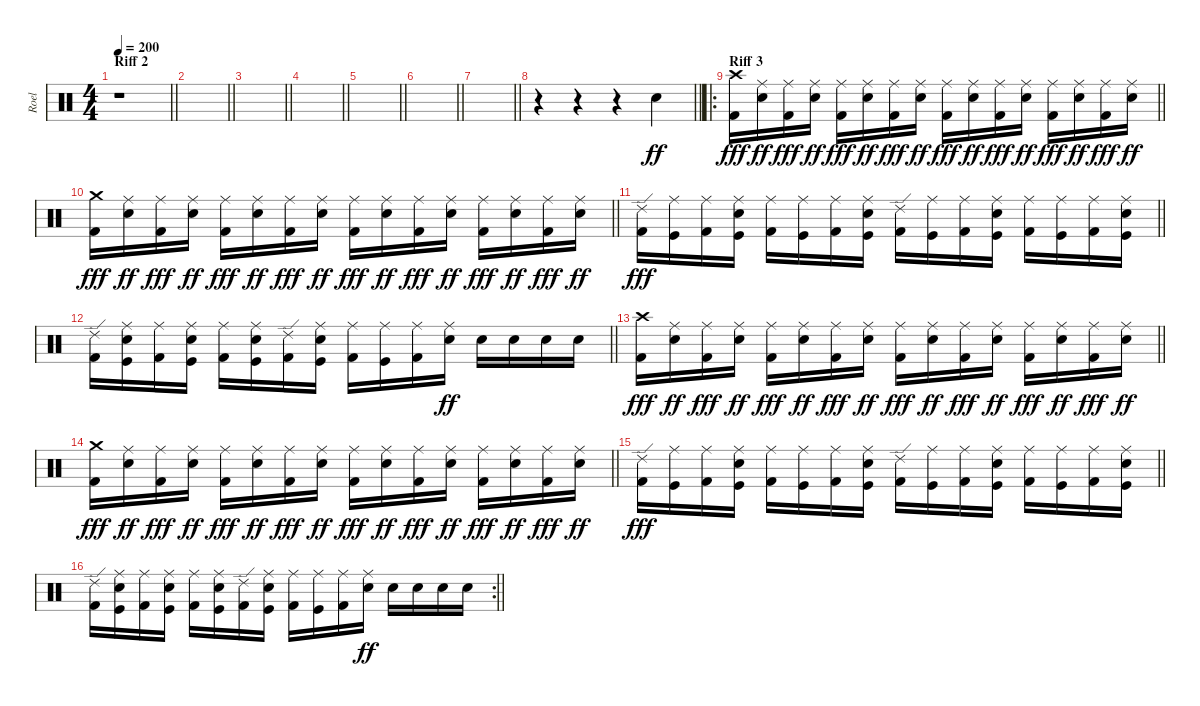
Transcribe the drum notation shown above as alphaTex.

\track ("Roel" "Roel") {instrument percussion}
\staff {score}
\articulation defaults
\ts (4 4)
\section ("" "Riff 2")
\tempo 200
\clef neutral
\barLineRight lightlight
\ks c
r.1{dy ff} |
\barLineRight lightlight
|
\barLineRight lightlight
|
\barLineRight lightlight
|
\barLineRight lightlight
|
\barLineRight lightlight
|
\barLineRight lightlight
|
\barLineRight lightlight
r.4 r.4 r.4 "Snare (hit) 2".4 |
\ro
\section ("" "Riff 3")
\barLineRight lightlight
("Crash high (hit)" "Kick (hit) 2").16{dy fff} ("Ride (middle)" "Snare (hit) 2").16{dy ff} ("Ride (middle)" "Kick (hit) 2").16{dy fff} ("Ride (middle)" "Snare (hit) 2").16{dy ff} ("Ride (middle)" "Kick (hit) 2").16{dy fff} ("Ride (middle)" "Snare (hit) 2").16{dy ff} ("Ride (middle)" "Kick (hit) 2").16{dy fff} ("Ride (middle)" "Snare (hit) 2").16{dy ff} ("Ride (middle)" "Kick (hit) 2").16{dy fff} ("Ride (middle)" "Snare (hit) 2").16{dy ff} ("Ride (middle)" "Kick (hit) 2").16{dy fff} ("Ride (middle)" "Snare (hit) 2").16{dy ff} ("Ride (middle)" "Kick (hit) 2").16{dy fff} ("Ride (middle)" "Snare (hit) 2").16{dy ff} ("Ride (middle)" "Kick (hit) 2").16{dy fff} ("Ride (middle)" "Snare (hit) 2").16{dy ff} |
\barLineRight lightlight
("Crash medium (hit)" "Kick (hit) 2").16{dy fff} ("Ride (middle)" "Snare (hit) 2").16{dy ff} ("Ride (middle)" "Kick (hit) 2").16{dy fff} ("Ride (middle)" "Snare (hit) 2").16{dy ff} ("Ride (middle)" "Kick (hit) 2").16{dy fff} ("Ride (middle)" "Snare (hit) 2").16{dy ff} ("Ride (middle)" "Kick (hit) 2").16{dy fff} ("Ride (middle)" "Snare (hit) 2").16{dy ff} ("Ride (middle)" "Kick (hit) 2").16{dy fff} ("Ride (middle)" "Snare (hit) 2").16{dy ff} ("Ride (middle)" "Kick (hit) 2").16{dy fff} ("Ride (middle)" "Snare (hit) 2").16{dy ff} ("Ride (middle)" "Kick (hit) 2").16{dy fff} ("Ride (middle)" "Snare (hit) 2").16{dy ff} ("Ride (middle)" "Kick (hit) 2").16{dy fff} ("Ride (middle)" "Snare (hit) 2").16{dy ff} |
\barLineRight lightlight
("Ride (edge) 2" "Kick (hit) 2").16{dy fff} ("Ride (middle)" "Kick (hit)").16 ("Ride (middle)" "Kick (hit) 2").16 ("Ride (middle)" "Snare (hit) 2" "Kick (hit)").16 ("Ride (middle)" "Kick (hit) 2").16 ("Ride (middle)" "Kick (hit)").16 ("Ride (middle)" "Kick (hit) 2").16 ("Ride (middle)" "Snare (hit) 2" "Kick (hit)").16 ("Ride (edge) 2" "Kick (hit) 2").16 ("Ride (middle)" "Kick (hit)").16 ("Ride (middle)" "Kick (hit) 2").16 ("Ride (middle)" "Snare (hit) 2" "Kick (hit)").16 ("Ride (middle)" "Kick (hit) 2").16 ("Ride (middle)" "Kick (hit)").16 ("Ride (middle)" "Kick (hit) 2").16 ("Ride (middle)" "Snare (hit) 2" "Kick (hit)").16 |
\barLineRight lightlight
("Ride (edge) 2" "Kick (hit) 2").16 ("Ride (middle)" "Snare (hit) 2" "Kick (hit)").16 ("Ride (middle)" "Kick (hit) 2").16 ("Ride (middle)" "Snare (hit) 2" "Kick (hit)").16 ("Ride (middle)" "Kick (hit) 2").16 ("Ride (middle)" "Snare (hit) 2" "Kick (hit)").16 ("Ride (edge) 2" "Kick (hit) 2").16 ("Ride (middle)" "Snare (hit) 2" "Kick (hit)").16 ("Ride (middle)" "Kick (hit) 2").16 ("Ride (middle)" "Kick (hit)").16 ("Ride (middle)" "Kick (hit) 2").16 ("Ride (middle)" "Snare (hit) 2").16{dy ff} "Snare (hit) 2".16 "Snare (hit) 2".16 "Snare (hit) 2".16 "Snare (hit) 2".16 |
\barLineRight lightlight
("Crash high (hit)" "Kick (hit) 2").16{dy fff} ("Ride (middle)" "Snare (hit) 2").16{dy ff} ("Ride (middle)" "Kick (hit) 2").16{dy fff} ("Ride (middle)" "Snare (hit) 2").16{dy ff} ("Ride (middle)" "Kick (hit) 2").16{dy fff} ("Ride (middle)" "Snare (hit) 2").16{dy ff} ("Ride (middle)" "Kick (hit) 2").16{dy fff} ("Ride (middle)" "Snare (hit) 2").16{dy ff} ("Ride (middle)" "Kick (hit) 2").16{dy fff} ("Ride (middle)" "Snare (hit) 2").16{dy ff} ("Ride (middle)" "Kick (hit) 2").16{dy fff} ("Ride (middle)" "Snare (hit) 2").16{dy ff} ("Ride (middle)" "Kick (hit) 2").16{dy fff} ("Ride (middle)" "Snare (hit) 2").16{dy ff} ("Ride (middle)" "Kick (hit) 2").16{dy fff} ("Ride (middle)" "Snare (hit) 2").16{dy ff} |
\barLineRight lightlight
("Crash medium (hit)" "Kick (hit) 2").16{dy fff} ("Ride (middle)" "Snare (hit) 2").16{dy ff} ("Ride (middle)" "Kick (hit) 2").16{dy fff} ("Ride (middle)" "Snare (hit) 2").16{dy ff} ("Ride (middle)" "Kick (hit) 2").16{dy fff} ("Ride (middle)" "Snare (hit) 2").16{dy ff} ("Ride (middle)" "Kick (hit) 2").16{dy fff} ("Ride (middle)" "Snare (hit) 2").16{dy ff} ("Ride (middle)" "Kick (hit) 2").16{dy fff} ("Ride (middle)" "Snare (hit) 2").16{dy ff} ("Ride (middle)" "Kick (hit) 2").16{dy fff} ("Ride (middle)" "Snare (hit) 2").16{dy ff} ("Ride (middle)" "Kick (hit) 2").16{dy fff} ("Ride (middle)" "Snare (hit) 2").16{dy ff} ("Ride (middle)" "Kick (hit) 2").16{dy fff} ("Ride (middle)" "Snare (hit) 2").16{dy ff} |
\barLineRight lightlight
("Ride (edge) 2" "Kick (hit) 2").16{dy fff} ("Ride (middle)" "Kick (hit)").16 ("Ride (middle)" "Kick (hit) 2").16 ("Ride (middle)" "Snare (hit) 2" "Kick (hit)").16 ("Ride (middle)" "Kick (hit) 2").16 ("Ride (middle)" "Kick (hit)").16 ("Ride (middle)" "Kick (hit) 2").16 ("Ride (middle)" "Snare (hit) 2" "Kick (hit)").16 ("Ride (edge) 2" "Kick (hit) 2").16 ("Ride (middle)" "Kick (hit)").16 ("Ride (middle)" "Kick (hit) 2").16 ("Ride (middle)" "Snare (hit) 2" "Kick (hit)").16 ("Ride (middle)" "Kick (hit) 2").16 ("Ride (middle)" "Kick (hit)").16 ("Ride (middle)" "Kick (hit) 2").16 ("Ride (middle)" "Snare (hit) 2" "Kick (hit)").16 |
\rc 2
\barLineRight lightlight
("Ride (edge) 2" "Kick (hit) 2").16 ("Ride (middle)" "Snare (hit) 2" "Kick (hit)").16 ("Ride (middle)" "Kick (hit) 2").16 ("Ride (middle)" "Snare (hit) 2" "Kick (hit)").16 ("Ride (middle)" "Kick (hit) 2").16 ("Ride (middle)" "Snare (hit) 2" "Kick (hit)").16 ("Ride (edge) 2" "Kick (hit) 2").16 ("Ride (middle)" "Snare (hit) 2" "Kick (hit)").16 ("Ride (middle)" "Kick (hit) 2").16 ("Ride (middle)" "Kick (hit)").16 ("Ride (middle)" "Kick (hit) 2").16 ("Ride (middle)" "Snare (hit) 2").16{dy ff} "Snare (hit) 2".16 "Snare (hit) 2".16 "Snare (hit) 2".16 "Snare (hit) 2".16
